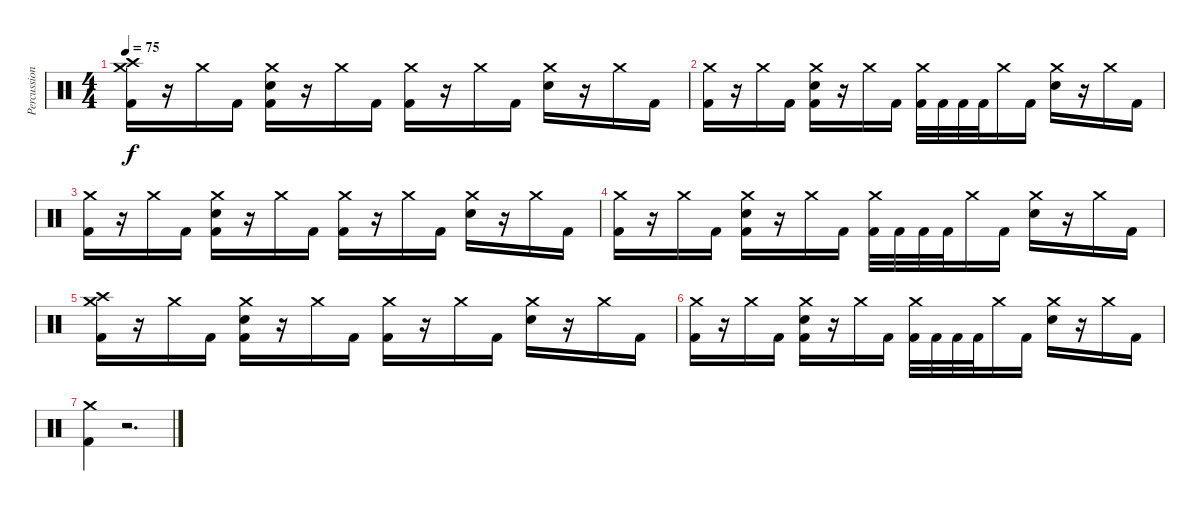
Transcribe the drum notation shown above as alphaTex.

\track ("Percussions" "Percussion") {instrument percussion}
\staff {score}
\articulation defaults
\ts (4 4)
\tempo 75
\clef neutral
\ks c
("Crash high (hit)" "Crash medium (hit)" "Kick (hit) 2").16{dy f} r.16 "Crash medium (hit)".16 "Kick (hit) 2".16 ("Crash medium (hit)" "Snare (hit) 2" "Kick (hit) 2").16 r.16 "Crash medium (hit)".16 "Kick (hit) 2".16 ("Crash medium (hit)" "Kick (hit) 2").16 r.16 "Crash medium (hit)".16 "Kick (hit) 2".16 ("Crash medium (hit)" "Snare (hit) 2").16 r.16 "Crash medium (hit)".16 "Kick (hit) 2".16 |
("Crash medium (hit)" "Kick (hit) 2").16 r.16 "Crash medium (hit)".16 "Kick (hit) 2".16 ("Crash medium (hit)" "Snare (hit) 2" "Kick (hit) 2").16 r.16 "Crash medium (hit)".16 "Kick (hit) 2".16 ("Crash medium (hit)" "Kick (hit) 2").32 "Kick (hit) 2".32 "Kick (hit) 2".32 "Kick (hit) 2".32 "Crash medium (hit)".16 "Kick (hit) 2".16 ("Crash medium (hit)" "Snare (hit) 2").16 r.16 "Crash medium (hit)".16 "Kick (hit) 2".16 |
("Crash medium (hit)" "Kick (hit) 2").16 r.16 "Crash medium (hit)".16 "Kick (hit) 2".16 ("Crash medium (hit)" "Snare (hit) 2" "Kick (hit) 2").16 r.16 "Crash medium (hit)".16 "Kick (hit) 2".16 ("Crash medium (hit)" "Kick (hit) 2").16 r.16 "Crash medium (hit)".16 "Kick (hit) 2".16 ("Crash medium (hit)" "Snare (hit) 2").16 r.16 "Crash medium (hit)".16 "Kick (hit) 2".16 |
("Crash medium (hit)" "Kick (hit) 2").16 r.16 "Crash medium (hit)".16 "Kick (hit) 2".16 ("Crash medium (hit)" "Snare (hit) 2" "Kick (hit) 2").16 r.16 "Crash medium (hit)".16 "Kick (hit) 2".16 ("Crash medium (hit)" "Kick (hit) 2").32 "Kick (hit) 2".32 "Kick (hit) 2".32 "Kick (hit) 2".32 "Crash medium (hit)".16 "Kick (hit) 2".16 ("Crash medium (hit)" "Snare (hit) 2").16 r.16 "Crash medium (hit)".16 "Kick (hit) 2".16 |
("Crash high (hit)" "Crash medium (hit)" "Kick (hit) 2").16 r.16 "Crash medium (hit)".16 "Kick (hit) 2".16 ("Crash medium (hit)" "Snare (hit) 2" "Kick (hit) 2").16 r.16 "Crash medium (hit)".16 "Kick (hit) 2".16 ("Crash medium (hit)" "Kick (hit) 2").16 r.16 "Crash medium (hit)".16 "Kick (hit) 2".16 ("Crash medium (hit)" "Snare (hit) 2").16 r.16 "Crash medium (hit)".16 "Kick (hit) 2".16 |
("Crash medium (hit)" "Kick (hit) 2").16 r.16 "Crash medium (hit)".16 "Kick (hit) 2".16 ("Crash medium (hit)" "Snare (hit) 2" "Kick (hit) 2").16 r.16 "Crash medium (hit)".16 "Kick (hit) 2".16 ("Crash medium (hit)" "Kick (hit) 2").32 "Kick (hit) 2".32 "Kick (hit) 2".32 "Kick (hit) 2".32 "Crash medium (hit)".16 "Kick (hit) 2".16 ("Crash medium (hit)" "Snare (hit) 2").16 r.16 "Crash medium (hit)".16 "Kick (hit) 2".16 |
("Crash medium (hit)" "Kick (hit) 2").4 r.2{d}
